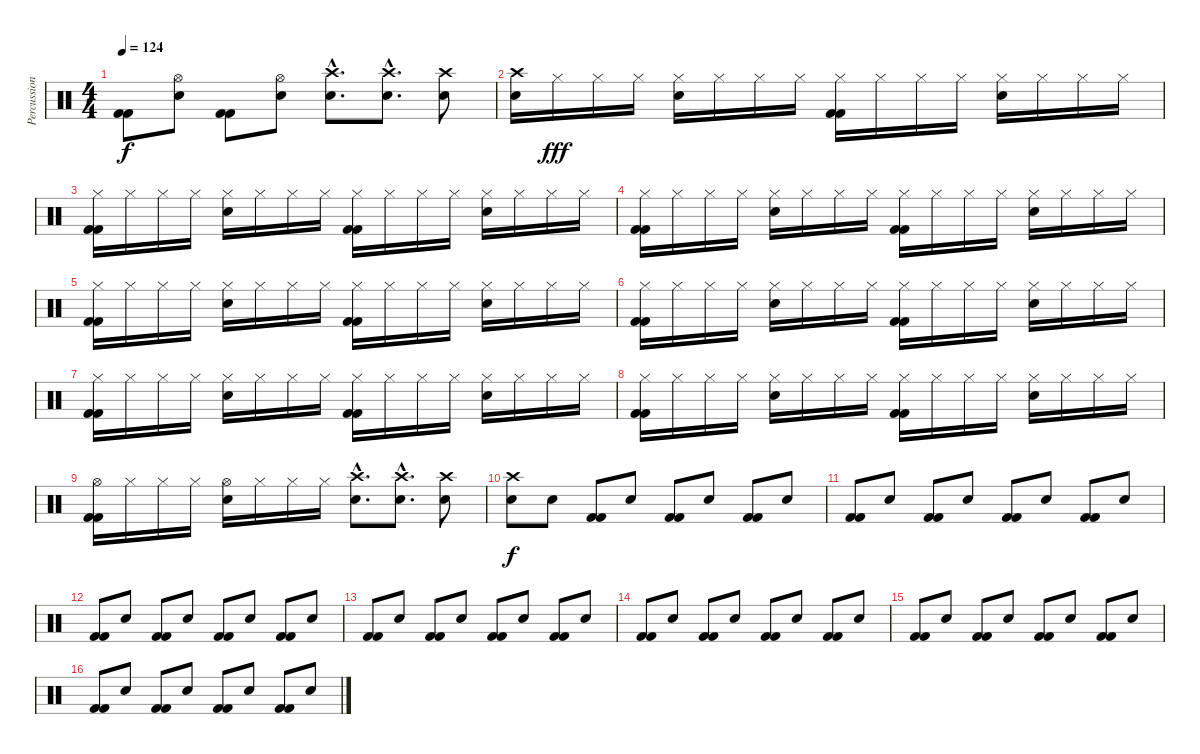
\track ("Percussions" "Percussion") {instrument percussion}
\staff {score}
\articulation defaults
\ts (4 4)
\tempo 124
\clef neutral
\ks c
("Kick (hit) 2" "Kick (hit) 2").8{dy f} ("Hand Clap (hit)" "Hi-Hat (open)").8 ("Kick (hit) 2" "Kick (hit) 2").8 ("Hand Clap (hit)" "Hi-Hat (open)").8 ("Snare (hit) 2"{hac} "Crash high (hit)"{hac}).8{d} ("Snare (hit) 2"{hac} "Crash high (hit)"{hac}).8{d} ("Snare (hit) 2" "Crash high (hit)").8 |
("Snare (hit) 2" "Crash high (hit)").16 "Hi-Hat (closed)".16{dy fff} "Hi-Hat (closed)".16 "Hi-Hat (closed)".16 ("Hand Clap (hit)" "Hi-Hat (closed)").16 "Hi-Hat (closed)".16 "Hi-Hat (closed)".16 "Hi-Hat (closed)".16 ("Kick (hit) 2" "Kick (hit) 2" "Hi-Hat (closed)").16 "Hi-Hat (closed)".16 "Hi-Hat (closed)".16 "Hi-Hat (closed)".16 ("Hand Clap (hit)" "Hi-Hat (closed)").16 "Hi-Hat (closed)".16 "Hi-Hat (closed)".16 "Hi-Hat (closed)".16 |
("Kick (hit) 2" "Kick (hit) 2" "Hi-Hat (closed)").16 "Hi-Hat (closed)".16 "Hi-Hat (closed)".16 "Hi-Hat (closed)".16 ("Hand Clap (hit)" "Hi-Hat (closed)").16 "Hi-Hat (closed)".16 "Hi-Hat (closed)".16 "Hi-Hat (closed)".16 ("Kick (hit) 2" "Kick (hit) 2" "Hi-Hat (closed)").16 "Hi-Hat (closed)".16 "Hi-Hat (closed)".16 "Hi-Hat (closed)".16 ("Hand Clap (hit)" "Hi-Hat (closed)").16 "Hi-Hat (closed)".16 "Hi-Hat (closed)".16 "Hi-Hat (closed)".16 |
("Kick (hit) 2" "Kick (hit) 2" "Hi-Hat (closed)").16 "Hi-Hat (closed)".16 "Hi-Hat (closed)".16 "Hi-Hat (closed)".16 ("Hand Clap (hit)" "Hi-Hat (closed)").16 "Hi-Hat (closed)".16 "Hi-Hat (closed)".16 "Hi-Hat (closed)".16 ("Kick (hit) 2" "Kick (hit) 2" "Hi-Hat (closed)").16 "Hi-Hat (closed)".16 "Hi-Hat (closed)".16 "Hi-Hat (closed)".16 ("Hand Clap (hit)" "Hi-Hat (closed)").16 "Hi-Hat (closed)".16 "Hi-Hat (closed)".16 "Hi-Hat (closed)".16 |
("Kick (hit) 2" "Kick (hit) 2" "Hi-Hat (closed)").16 "Hi-Hat (closed)".16 "Hi-Hat (closed)".16 "Hi-Hat (closed)".16 ("Hand Clap (hit)" "Hi-Hat (closed)").16 "Hi-Hat (closed)".16 "Hi-Hat (closed)".16 "Hi-Hat (closed)".16 ("Kick (hit) 2" "Kick (hit) 2" "Hi-Hat (closed)").16 "Hi-Hat (closed)".16 "Hi-Hat (closed)".16 "Hi-Hat (closed)".16 ("Hand Clap (hit)" "Hi-Hat (closed)").16 "Hi-Hat (closed)".16 "Hi-Hat (closed)".16 "Hi-Hat (closed)".16 |
("Kick (hit) 2" "Kick (hit) 2" "Hi-Hat (closed)").16 "Hi-Hat (closed)".16 "Hi-Hat (closed)".16 "Hi-Hat (closed)".16 ("Hand Clap (hit)" "Hi-Hat (closed)").16 "Hi-Hat (closed)".16 "Hi-Hat (closed)".16 "Hi-Hat (closed)".16 ("Kick (hit) 2" "Kick (hit) 2" "Hi-Hat (closed)").16 "Hi-Hat (closed)".16 "Hi-Hat (closed)".16 "Hi-Hat (closed)".16 ("Hand Clap (hit)" "Hi-Hat (closed)").16 "Hi-Hat (closed)".16 "Hi-Hat (closed)".16 "Hi-Hat (closed)".16 |
("Kick (hit) 2" "Kick (hit) 2" "Hi-Hat (closed)").16 "Hi-Hat (closed)".16 "Hi-Hat (closed)".16 "Hi-Hat (closed)".16 ("Hand Clap (hit)" "Hi-Hat (closed)").16 "Hi-Hat (closed)".16 "Hi-Hat (closed)".16 "Hi-Hat (closed)".16 ("Kick (hit) 2" "Kick (hit) 2" "Hi-Hat (closed)").16 "Hi-Hat (closed)".16 "Hi-Hat (closed)".16 "Hi-Hat (closed)".16 ("Hand Clap (hit)" "Hi-Hat (closed)").16 "Hi-Hat (closed)".16 "Hi-Hat (closed)".16 "Hi-Hat (closed)".16 |
("Kick (hit) 2" "Kick (hit) 2" "Hi-Hat (closed)").16 "Hi-Hat (closed)".16 "Hi-Hat (closed)".16 "Hi-Hat (closed)".16 ("Hand Clap (hit)" "Hi-Hat (closed)").16 "Hi-Hat (closed)".16 "Hi-Hat (closed)".16 "Hi-Hat (closed)".16 ("Kick (hit) 2" "Kick (hit) 2" "Hi-Hat (closed)").16 "Hi-Hat (closed)".16 "Hi-Hat (closed)".16 "Hi-Hat (closed)".16 ("Hand Clap (hit)" "Hi-Hat (closed)").16 "Hi-Hat (closed)".16 "Hi-Hat (closed)".16 "Hi-Hat (closed)".16 |
("Kick (hit) 2" "Kick (hit) 2" "Hi-Hat (open)").16 "Hi-Hat (closed)".16 "Hi-Hat (closed)".16 "Hi-Hat (closed)".16 ("Hand Clap (hit)" "Hi-Hat (open)").16 "Hi-Hat (closed)".16 "Hi-Hat (closed)".16 "Hi-Hat (closed)".16 ("Snare (hit) 2"{hac} "Crash high (hit)"{hac}).8{d} ("Snare (hit) 2"{hac} "Crash high (hit)"{hac}).8{d} ("Snare (hit) 2" "Crash high (hit)").8 |
("Snare (hit) 2" "Crash high (hit)").8{dy f} "Hand Clap (hit)".8 ("Kick (hit) 2" "Kick (hit) 2").8 "Hand Clap (hit)".8 ("Kick (hit) 2" "Kick (hit) 2").8 "Hand Clap (hit)".8 ("Kick (hit) 2" "Kick (hit) 2").8 "Hand Clap (hit)".8 |
("Kick (hit) 2" "Kick (hit) 2").8 "Hand Clap (hit)".8 ("Kick (hit) 2" "Kick (hit) 2").8 "Hand Clap (hit)".8 ("Kick (hit) 2" "Kick (hit) 2").8 "Hand Clap (hit)".8 ("Kick (hit) 2" "Kick (hit) 2").8 "Hand Clap (hit)".8 |
("Kick (hit) 2" "Kick (hit) 2").8 "Hand Clap (hit)".8 ("Kick (hit) 2" "Kick (hit) 2").8 "Hand Clap (hit)".8 ("Kick (hit) 2" "Kick (hit) 2").8 "Hand Clap (hit)".8 ("Kick (hit) 2" "Kick (hit) 2").8 "Hand Clap (hit)".8 |
("Kick (hit) 2" "Kick (hit) 2").8 "Hand Clap (hit)".8 ("Kick (hit) 2" "Kick (hit) 2").8 "Hand Clap (hit)".8 ("Kick (hit) 2" "Kick (hit) 2").8 "Hand Clap (hit)".8 ("Kick (hit) 2" "Kick (hit) 2").8 "Hand Clap (hit)".8 |
("Kick (hit) 2" "Kick (hit) 2").8 "Hand Clap (hit)".8 ("Kick (hit) 2" "Kick (hit) 2").8 "Hand Clap (hit)".8 ("Kick (hit) 2" "Kick (hit) 2").8 "Hand Clap (hit)".8 ("Kick (hit) 2" "Kick (hit) 2").8 "Hand Clap (hit)".8 |
("Kick (hit) 2" "Kick (hit) 2").8 "Hand Clap (hit)".8 ("Kick (hit) 2" "Kick (hit) 2").8 "Hand Clap (hit)".8 ("Kick (hit) 2" "Kick (hit) 2").8 "Hand Clap (hit)".8 ("Kick (hit) 2" "Kick (hit) 2").8 "Hand Clap (hit)".8 |
("Kick (hit) 2" "Kick (hit) 2").8 "Hand Clap (hit)".8 ("Kick (hit) 2" "Kick (hit) 2").8 "Hand Clap (hit)".8 ("Kick (hit) 2" "Kick (hit) 2").8 "Hand Clap (hit)".8 ("Kick (hit) 2" "Kick (hit) 2").8 "Hand Clap (hit)".8
